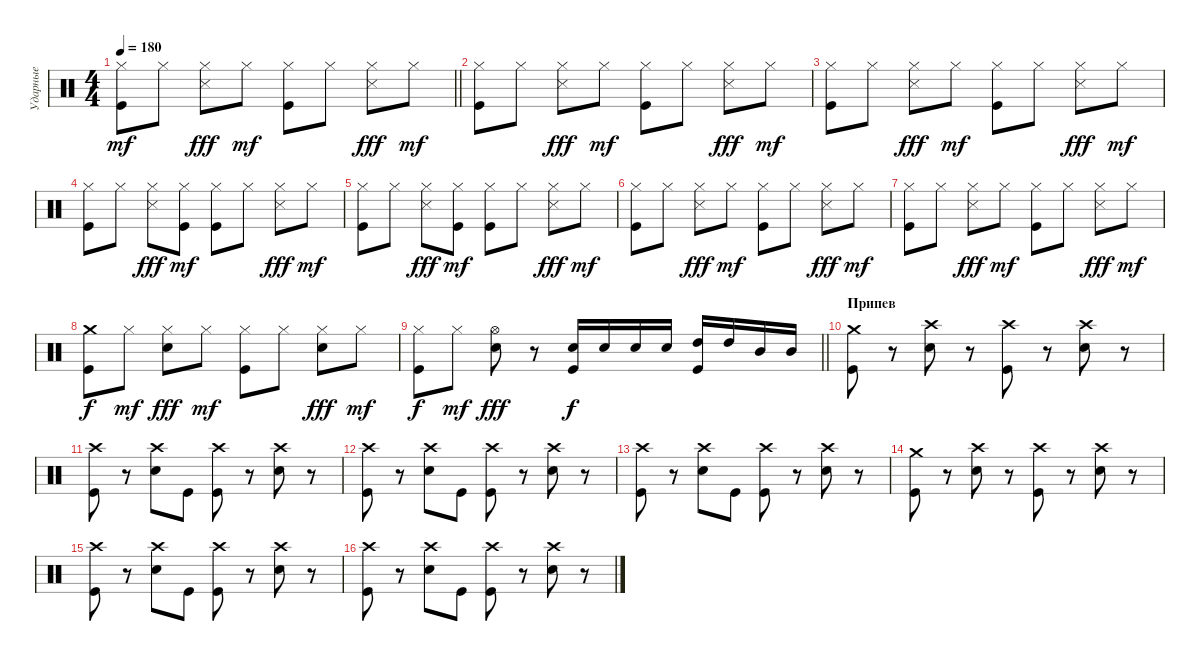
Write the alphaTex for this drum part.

\track ("Ударные" "Ударные") {instrument percussion}
\staff {score}
\articulation defaults
\ts (4 4)
\tempo 180
\clef neutral
\barLineRight lightlight
\ks c
("Hi-Hat (closed)" "Kick (hit)").8{dy mf} "Hi-Hat (closed)".8 ("Hi-Hat (closed)" "Metronome (hit)").8{dy fff} "Hi-Hat (closed)".8{dy mf} ("Hi-Hat (closed)" "Kick (hit)").8 "Hi-Hat (closed)".8 ("Hi-Hat (closed)" "Metronome (hit)").8{dy fff} "Hi-Hat (closed)".8{dy mf} |
("Hi-Hat (closed)" "Kick (hit)").8 "Hi-Hat (closed)".8 ("Hi-Hat (closed)" "Metronome (hit)").8{dy fff} "Hi-Hat (closed)".8{dy mf} ("Hi-Hat (closed)" "Kick (hit)").8 "Hi-Hat (closed)".8 ("Hi-Hat (closed)" "Metronome (hit)").8{dy fff} "Hi-Hat (closed)".8{dy mf} |
("Hi-Hat (closed)" "Kick (hit)").8 "Hi-Hat (closed)".8 ("Hi-Hat (closed)" "Metronome (hit)").8{dy fff} "Hi-Hat (closed)".8{dy mf} ("Hi-Hat (closed)" "Kick (hit)").8 "Hi-Hat (closed)".8 ("Hi-Hat (closed)" "Metronome (hit)").8{dy fff} "Hi-Hat (closed)".8{dy mf} |
("Hi-Hat (closed)" "Kick (hit)").8 "Hi-Hat (closed)".8 ("Hi-Hat (closed)" "Metronome (hit)").8{dy fff} ("Hi-Hat (closed)" "Kick (hit)").8{dy mf} ("Hi-Hat (closed)" "Kick (hit)").8 "Hi-Hat (closed)".8 ("Hi-Hat (closed)" "Metronome (hit)").8{dy fff} "Hi-Hat (closed)".8{dy mf} |
("Hi-Hat (closed)" "Kick (hit)").8 "Hi-Hat (closed)".8 ("Hi-Hat (closed)" "Metronome (hit)").8{dy fff} ("Hi-Hat (closed)" "Kick (hit)").8{dy mf} ("Hi-Hat (closed)" "Kick (hit)").8 "Hi-Hat (closed)".8 ("Hi-Hat (closed)" "Metronome (hit)").8{dy fff} "Hi-Hat (closed)".8{dy mf} |
("Hi-Hat (closed)" "Kick (hit)").8 "Hi-Hat (closed)".8 ("Hi-Hat (closed)" "Metronome (hit)").8{dy fff} "Hi-Hat (closed)".8{dy mf} ("Hi-Hat (closed)" "Kick (hit)").8 "Hi-Hat (closed)".8 ("Hi-Hat (closed)" "Metronome (hit)").8{dy fff} "Hi-Hat (closed)".8{dy mf} |
("Hi-Hat (closed)" "Kick (hit)").8 "Hi-Hat (closed)".8 ("Hi-Hat (closed)" "Metronome (hit)").8{dy fff} "Hi-Hat (closed)".8{dy mf} ("Hi-Hat (closed)" "Kick (hit)").8 "Hi-Hat (closed)".8 ("Hi-Hat (closed)" "Metronome (hit)").8{dy fff} "Hi-Hat (closed)".8{dy mf} |
("Crash medium (hit)" "Kick (hit)").8{dy f} "Hi-Hat (closed)".8{dy mf} ("Hi-Hat (closed)" "Electric Snare (hit)").8{dy fff} "Hi-Hat (closed)".8{dy mf} ("Hi-Hat (closed)" "Kick (hit)").8 "Hi-Hat (closed)".8 ("Hi-Hat (closed)" "Electric Snare (hit)").8{dy fff} "Hi-Hat (closed)".8{dy mf} |
\barLineRight lightlight
("Hi-Hat (closed)" "Kick (hit)").8{dy f} "Hi-Hat (closed)".8{dy mf} ("Hi-Hat (open)" "Electric Snare (hit)").8{dy fff} r.8 ("Electric Snare (hit)" "Kick (hit)").16{dy f} "Electric Snare (hit)".16 "Electric Snare (hit)".16 "Electric Snare (hit)".16 ("High Tom (hit)" "Kick (hit)").16 "High Tom (hit)".16 "Mid Tom (hit)".16 "Mid Tom (hit)".16 |
\section ("" "Припев")
("Crash medium (hit)" "Kick (hit)").8 r.8 ("Crash high (hit)" "Electric Snare (hit)").8 r.8 ("Crash high (hit)" "Kick (hit)").8 r.8 ("Crash high (hit)" "Electric Snare (hit)").8 r.8 |
("Crash high (hit)" "Kick (hit)").8 r.8 ("Crash high (hit)" "Electric Snare (hit)").8 "Kick (hit)".8 ("Crash high (hit)" "Kick (hit)").8 r.8 ("Crash high (hit)" "Electric Snare (hit)").8 r.8 |
("Crash high (hit)" "Kick (hit)").8 r.8 ("Crash high (hit)" "Electric Snare (hit)").8 "Kick (hit)".8 ("Crash high (hit)" "Kick (hit)").8 r.8 ("Crash high (hit)" "Electric Snare (hit)").8 r.8 |
("Crash high (hit)" "Kick (hit)").8 r.8 ("Crash high (hit)" "Electric Snare (hit)").8 "Kick (hit)".8 ("Crash high (hit)" "Kick (hit)").8 r.8 ("Crash high (hit)" "Electric Snare (hit)").8 r.8 |
("Crash medium (hit)" "Kick (hit)").8 r.8 ("Crash high (hit)" "Electric Snare (hit)").8 r.8 ("Crash high (hit)" "Kick (hit)").8 r.8 ("Crash high (hit)" "Electric Snare (hit)").8 r.8 |
("Crash high (hit)" "Kick (hit)").8 r.8 ("Crash high (hit)" "Electric Snare (hit)").8 "Kick (hit)".8 ("Crash high (hit)" "Kick (hit)").8 r.8 ("Crash high (hit)" "Electric Snare (hit)").8 r.8 |
("Crash high (hit)" "Kick (hit)").8 r.8 ("Crash high (hit)" "Electric Snare (hit)").8 "Kick (hit)".8 ("Crash high (hit)" "Kick (hit)").8 r.8 ("Crash high (hit)" "Electric Snare (hit)").8 r.8
